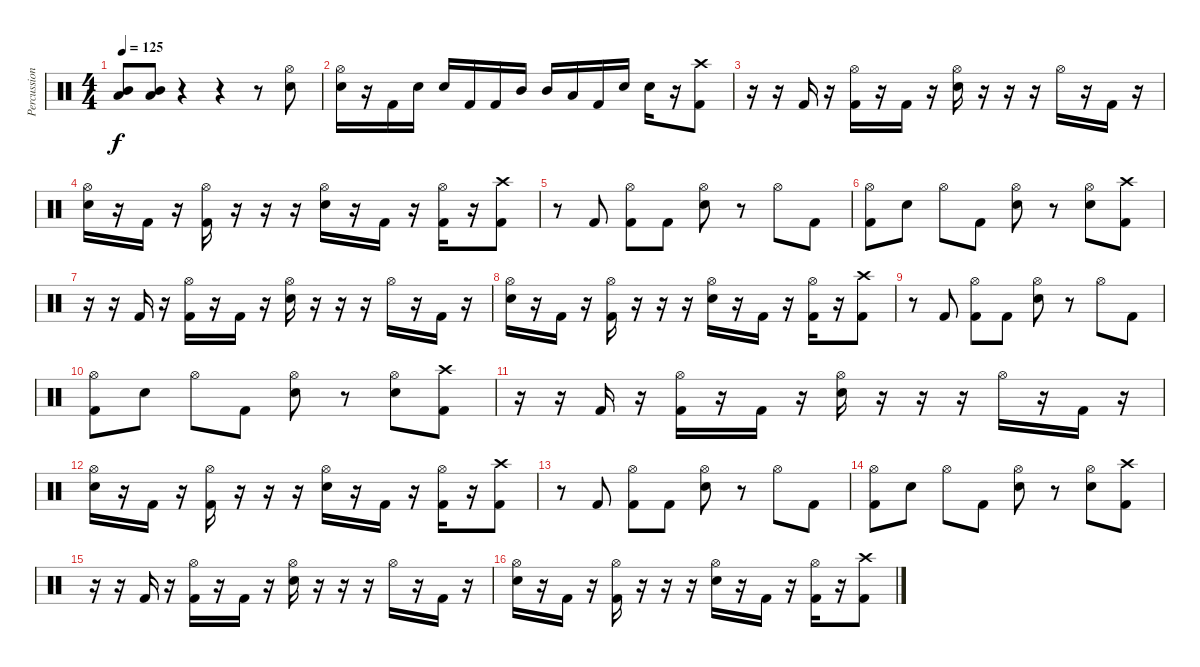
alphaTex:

\track ("Percussion" "Percussion") {instrument percussion}
\staff {score}
\articulation defaults
\ts (4 4)
\tempo 125
\clef neutral
\ks c
("Mid Tom (hit)" "Low Tom (hit)").8{dy f} ("Mid Tom (hit)" "Low Tom (hit)").8 r.4 r.4 r.8 ("Hi-Hat (open)" "Electric Snare (hit)").8 |
("Hi-Hat (open)" "Electric Snare (hit)").16 r.16 "Kick (hit) 2".16 "Electric Snare (hit)".16 "Electric Snare (hit)".16 "Kick (hit) 2".16 "Kick (hit) 2".16 "Mid Tom (hit)".16 "Mid Tom (hit)".16 "Low Tom (hit)".16 "Kick (hit) 2".16 "Electric Snare (hit)".16 "Electric Snare (hit)".16 r.16 ("Crash high (hit)" "Kick (hit) 2").8 |
r.16 r.16 "Kick (hit) 2".16 r.16 ("Hi-Hat (open)" "Kick (hit) 2").16 r.16 "Kick (hit) 2".16 r.16 ("Hi-Hat (open)" "Electric Snare (hit)").16 r.16 r.16 r.16 "Hi-Hat (open)".16 r.16 "Kick (hit) 2".16 r.16 |
("Hi-Hat (open)" "Electric Snare (hit)").16 r.16 "Kick (hit) 2".16 r.16 ("Hi-Hat (open)" "Kick (hit) 2").16 r.16 r.16 r.16 ("Hi-Hat (open)" "Electric Snare (hit)").16 r.16 "Kick (hit) 2".16 r.16 ("Hi-Hat (open)" "Kick (hit) 2").16 r.16 ("Crash high (hit)" "Kick (hit) 2").8 |
r.8 "Kick (hit) 2".8 ("Hi-Hat (open)" "Kick (hit) 2").8 "Kick (hit) 2".8 ("Hi-Hat (open)" "Electric Snare (hit)").8 r.8 "Hi-Hat (open)".8 "Kick (hit) 2".8 |
("Hi-Hat (open)" "Kick (hit) 2").8 "Electric Snare (hit)".8 "Hi-Hat (open)".8 "Kick (hit) 2".8 ("Hi-Hat (open)" "Electric Snare (hit)").8 r.8 ("Hi-Hat (open)" "Electric Snare (hit)").8 ("Crash high (hit)" "Kick (hit) 2").8 |
r.16 r.16 "Kick (hit) 2".16 r.16 ("Hi-Hat (open)" "Kick (hit) 2").16 r.16 "Kick (hit) 2".16 r.16 ("Hi-Hat (open)" "Electric Snare (hit)").16 r.16 r.16 r.16 "Hi-Hat (open)".16 r.16 "Kick (hit) 2".16 r.16 |
("Hi-Hat (open)" "Electric Snare (hit)").16 r.16 "Kick (hit) 2".16 r.16 ("Hi-Hat (open)" "Kick (hit) 2").16 r.16 r.16 r.16 ("Hi-Hat (open)" "Electric Snare (hit)").16 r.16 "Kick (hit) 2".16 r.16 ("Hi-Hat (open)" "Kick (hit) 2").16 r.16 ("Crash high (hit)" "Kick (hit) 2").8 |
r.8 "Kick (hit) 2".8 ("Hi-Hat (open)" "Kick (hit) 2").8 "Kick (hit) 2".8 ("Hi-Hat (open)" "Electric Snare (hit)").8 r.8 "Hi-Hat (open)".8 "Kick (hit) 2".8 |
("Hi-Hat (open)" "Kick (hit) 2").8 "Electric Snare (hit)".8 "Hi-Hat (open)".8 "Kick (hit) 2".8 ("Hi-Hat (open)" "Electric Snare (hit)").8 r.8 ("Hi-Hat (open)" "Electric Snare (hit)").8 ("Crash high (hit)" "Kick (hit) 2").8 |
r.16 r.16 "Kick (hit) 2".16 r.16 ("Hi-Hat (open)" "Kick (hit) 2").16 r.16 "Kick (hit) 2".16 r.16 ("Hi-Hat (open)" "Electric Snare (hit)").16 r.16 r.16 r.16 "Hi-Hat (open)".16 r.16 "Kick (hit) 2".16 r.16 |
("Hi-Hat (open)" "Electric Snare (hit)").16 r.16 "Kick (hit) 2".16 r.16 ("Hi-Hat (open)" "Kick (hit) 2").16 r.16 r.16 r.16 ("Hi-Hat (open)" "Electric Snare (hit)").16 r.16 "Kick (hit) 2".16 r.16 ("Hi-Hat (open)" "Kick (hit) 2").16 r.16 ("Crash high (hit)" "Kick (hit) 2").8 |
r.8 "Kick (hit) 2".8 ("Hi-Hat (open)" "Kick (hit) 2").8 "Kick (hit) 2".8 ("Hi-Hat (open)" "Electric Snare (hit)").8 r.8 "Hi-Hat (open)".8 "Kick (hit) 2".8 |
("Hi-Hat (open)" "Kick (hit) 2").8 "Electric Snare (hit)".8 "Hi-Hat (open)".8 "Kick (hit) 2".8 ("Hi-Hat (open)" "Electric Snare (hit)").8 r.8 ("Hi-Hat (open)" "Electric Snare (hit)").8 ("Crash high (hit)" "Kick (hit) 2").8 |
r.16 r.16 "Kick (hit) 2".16 r.16 ("Hi-Hat (open)" "Kick (hit) 2").16 r.16 "Kick (hit) 2".16 r.16 ("Hi-Hat (open)" "Electric Snare (hit)").16 r.16 r.16 r.16 "Hi-Hat (open)".16 r.16 "Kick (hit) 2".16 r.16 |
("Hi-Hat (open)" "Electric Snare (hit)").16 r.16 "Kick (hit) 2".16 r.16 ("Hi-Hat (open)" "Kick (hit) 2").16 r.16 r.16 r.16 ("Hi-Hat (open)" "Electric Snare (hit)").16 r.16 "Kick (hit) 2".16 r.16 ("Hi-Hat (open)" "Kick (hit) 2").16 r.16 ("Crash high (hit)" "Kick (hit) 2").8
